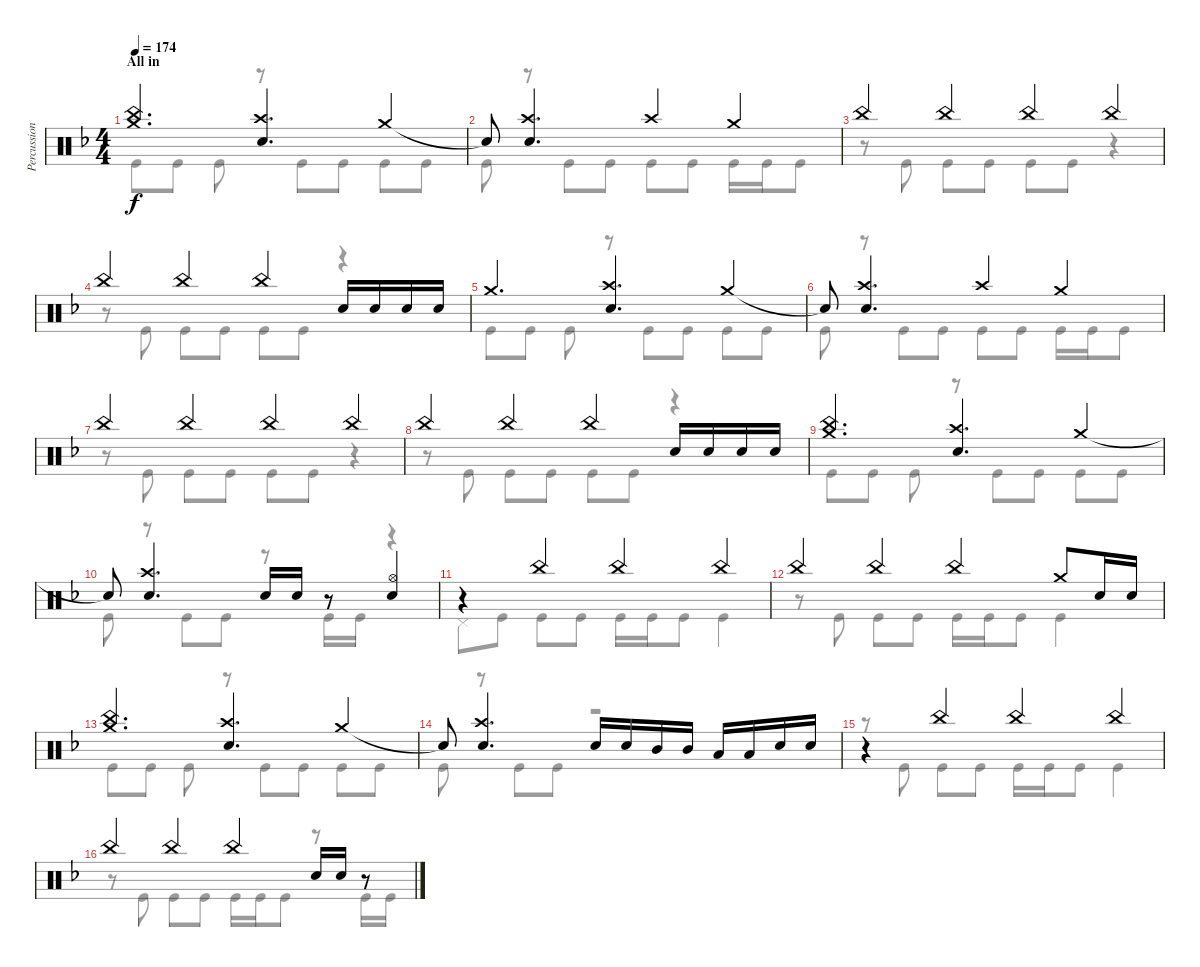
\track ("Percussion" "Percussion") {instrument percussion}
\staff {score}
\articulation defaults
\voice
\ts (4 4)
\section ("" "All in")
\tempo 174
\clef neutral
\ks dminor
("Crash medium (hit)" "China (hit)").4{d dy f} ("Crash high (hit)" "Electric Snare (hit)").4{d} "Crash medium (hit)".4 |
"Snare (hit)"{t}.8 ("Crash high (hit)" "Electric Snare (hit)").4{d} "Crash high (hit)".4 "Crash medium (hit)".4 |
"China (hit)".4 "China (hit)".4 "China (hit)".4 "China (hit)".4 |
"China (hit)".4 "China (hit)".4 "China (hit)".4 "Electric Snare (hit)".16 "Electric Snare (hit)".16 "Electric Snare (hit)".16 "Electric Snare (hit)".16 |
"Crash medium (hit)".4{d} ("Crash high (hit)" "Electric Snare (hit)").4{d} "Crash medium (hit)".4 |
"Snare (hit)"{t}.8 ("Crash high (hit)" "Electric Snare (hit)").4{d} "Crash high (hit)".4 "Crash medium (hit)".4 |
"China (hit)".4 "China (hit)".4 "China (hit)".4 "China (hit)".4 |
"China (hit)".4 "China (hit)".4 "China (hit)".4 "Electric Snare (hit)".16 "Electric Snare (hit)".16 "Electric Snare (hit)".16 "Electric Snare (hit)".16 |
("Crash medium (hit)" "China (hit)").4{d} ("Crash high (hit)" "Electric Snare (hit)").4{d} "Crash medium (hit)".4 |
"Snare (hit)"{t}.8 ("Crash high (hit)" "Electric Snare (hit)").4{d} "Electric Snare (hit)".16 "Electric Snare (hit)".16 r.8 ("Hi-Hat (open)" "Electric Snare (hit)").4 |
r.4 "China (hit)".4 "China (hit)".4 "China (hit)".4 |
"China (hit)".4 "China (hit)".4 "China (hit)".4 "Crash medium (hit)".8 "Electric Snare (hit)".16 "Electric Snare (hit)".16 |
("Crash medium (hit)" "China (hit)").4{d} ("Crash high (hit)" "Electric Snare (hit)").4{d} "Crash medium (hit)".4 |
"Snare (hit)"{t}.8 ("Crash high (hit)" "Electric Snare (hit)").4{d} "Electric Snare (hit)".16 "Electric Snare (hit)".16 "Mid Tom (hit)".16 "Mid Tom (hit)".16 "Low Tom (hit)".16 "Low Tom (hit)".16 "Electric Snare (hit)".16 "Electric Snare (hit)".16 |
r.4 "China (hit)".4 "China (hit)".4 "China (hit)".4 |
"China (hit)".4 "China (hit)".4 "China (hit)".4 "Electric Snare (hit)".16 "Electric Snare (hit)".16 r.8
\voice
\clef neutral
\ottava regular
\simile none
\ks dminor "Kick (hit)".8{dy f} "Kick (hit)".8 "Kick (hit)".8
r.8 "Kick (hit)".8 "Kick (hit)".8 "Kick (hit)".8 "Kick (hit)".8 |
"Kick (hit)".8 r.8 "Kick (hit)".8 "Kick (hit)".8 "Kick (hit)".8 "Kick (hit)".8 "Kick (hit)".16 "Kick (hit)".16 "Kick (hit)".8 |
r.8 "Kick (hit)".8 "Kick (hit)".8 "Kick (hit)".8 "Kick (hit)".8 "Kick (hit)".8 r.4 |
r.8 "Kick (hit)".8 "Kick (hit)".8 "Kick (hit)".8 "Kick (hit)".8 "Kick (hit)".8 r.4 |
"Kick (hit)".8 "Kick (hit)".8 "Kick (hit)".8 r.8 "Kick (hit)".8 "Kick (hit)".8 "Kick (hit)".8 "Kick (hit)".8 |
"Kick (hit)".8 r.8 "Kick (hit)".8 "Kick (hit)".8 "Kick (hit)".8 "Kick (hit)".8 "Kick (hit)".16 "Kick (hit)".16 "Kick (hit)".8 |
r.8 "Kick (hit)".8 "Kick (hit)".8 "Kick (hit)".8 "Kick (hit)".8 "Kick (hit)".8 r.4 |
r.8 "Kick (hit)".8 "Kick (hit)".8 "Kick (hit)".8 "Kick (hit)".8 "Kick (hit)".8 r.4 |
"Kick (hit)".8 "Kick (hit)".8 "Kick (hit)".8 r.8 "Kick (hit)".8 "Kick (hit)".8 "Kick (hit)".8 "Kick (hit)".8 |
"Kick (hit)".8 r.8 "Kick (hit)".8 "Kick (hit)".8 r.8 "Kick (hit)".16 "Kick (hit)".16 r.4 |
"Pedal Hi-Hat (hit)".8 "Kick (hit)".8 "Kick (hit)".8 "Kick (hit)".8 "Kick (hit)".16 "Kick (hit)".16 "Kick (hit)".8 "Kick (hit)".4 |
r.8 "Kick (hit)".8 "Kick (hit)".8 "Kick (hit)".8 "Kick (hit)".16 "Kick (hit)".16 "Kick (hit)".8 "Kick (hit)".4 |
"Kick (hit)".8 "Kick (hit)".8 "Kick (hit)".8 r.8 "Kick (hit)".8 "Kick (hit)".8 "Kick (hit)".8 "Kick (hit)".8 |
"Kick (hit)".8 r.8 "Kick (hit)".8 "Kick (hit)".8 r.2 |
r.8 "Kick (hit)".8 "Kick (hit)".8 "Kick (hit)".8 "Kick (hit)".16 "Kick (hit)".16 "Kick (hit)".8 "Kick (hit)".4 |
r.8 "Kick (hit)".8 "Kick (hit)".8 "Kick (hit)".8 "Kick (hit)".16 "Kick (hit)".16 "Kick (hit)".8 r.8 "Kick (hit)".16 "Kick (hit)".16
